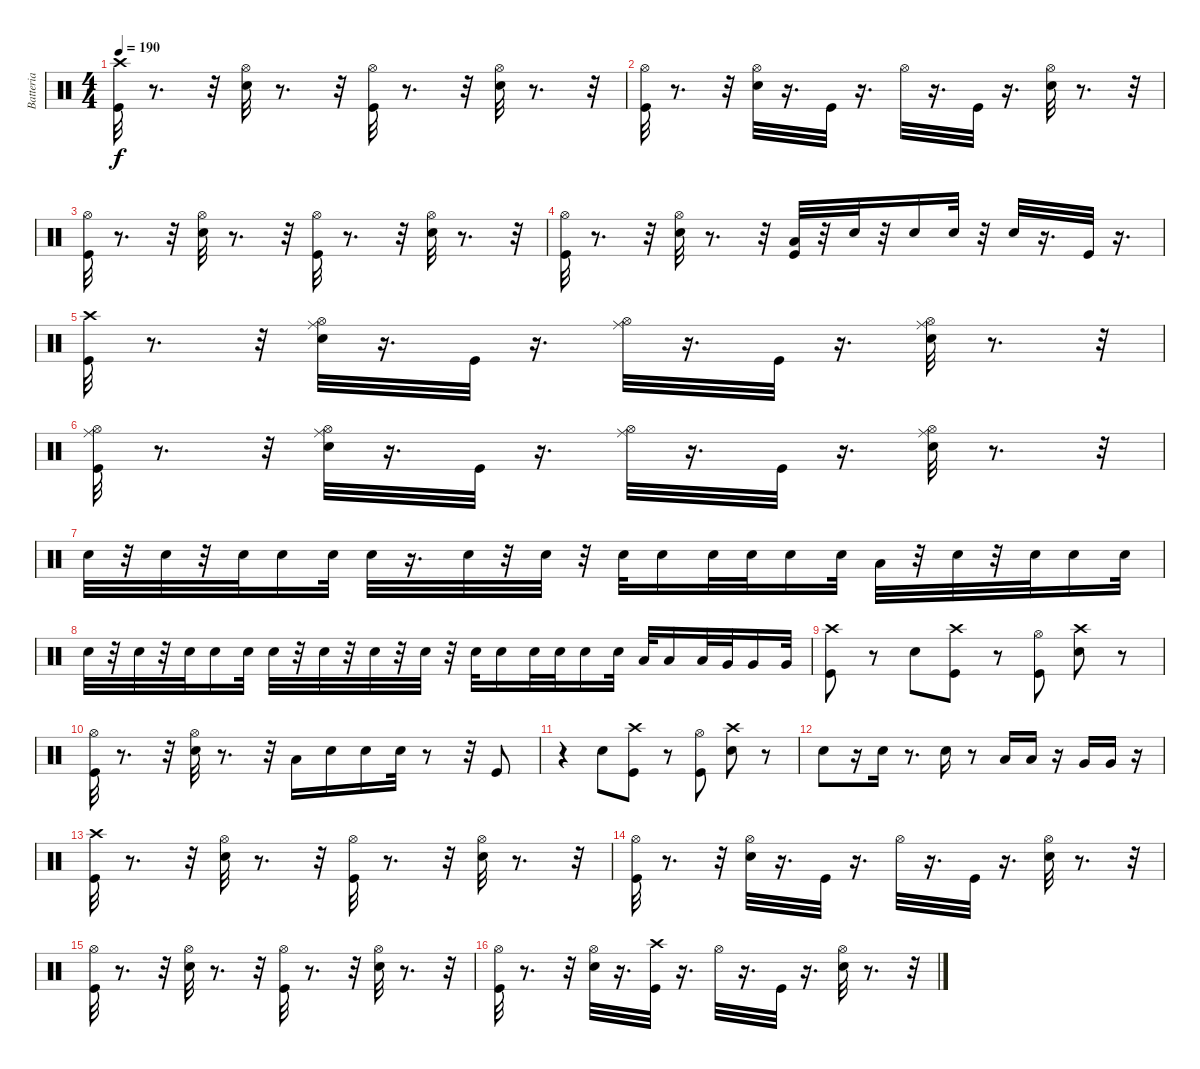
\track ("Batteria" "Batteria") {instrument percussion}
\staff {score}
\articulation defaults
\ts (4 4)
\tempo 190
\clef neutral
\ks c
("Kick (hit)" "Crash high (hit)").32{dy f} r.8{d} r.32 ("Hi-Hat (open)" "Snare (hit) 2").32 r.8{d} r.32 ("Hi-Hat (open)" "Kick (hit)").32 r.8{d} r.32 ("Snare (hit) 2" "Hi-Hat (open)").32 r.8{d} r.32 |
("Hi-Hat (open)" "Kick (hit)").32 r.8{d} r.32 ("Hi-Hat (open)" "Snare (hit) 2").32 r.16{d} "Kick (hit)".32 r.16{d} "Hi-Hat (open)".32 r.16{d} "Kick (hit)".32 r.16{d} ("Hi-Hat (open)" "Snare (hit) 2").32 r.8{d} r.32 |
("Kick (hit)" "Hi-Hat (open)").32 r.8{d} r.32 ("Hi-Hat (open)" "Snare (hit) 2").32 r.8{d} r.32 ("Hi-Hat (open)" "Kick (hit)").32 r.8{d} r.32 ("Hi-Hat (open)" "Snare (hit) 2").32 r.8{d} r.32 |
("Hi-Hat (open)" "Kick (hit)").32 r.8{d} r.32 ("Snare (hit) 2" "Hi-Hat (open)").32 r.8{d} r.32 ("Low Tom (hit)" "Kick (hit)").32 r.32 "Snare (hit) 2".32 r.32 "Snare (hit) 2".16 "Snare (hit) 2".32 r.32 "Snare (hit) 2".32 r.16{d} "Kick (hit)".32 r.16{d} |
("Crash high (hit)" "Kick (hit)").32 r.8{d} r.32 ("Hi-Hat (open)" "Snare (hit) 2" "Ride (middle)").32 r.16{d} "Kick (hit)".32 r.16{d} ("Hi-Hat (open)" "Ride (middle)").32 r.16{d} "Kick (hit)".32 r.16{d} ("Hi-Hat (open)" "Snare (hit) 2" "Ride (middle)").32 r.8{d} r.32 |
("Hi-Hat (open)" "Ride (middle)" "Kick (hit)").32 r.8{d} r.32 ("Hi-Hat (open)" "Snare (hit) 2" "Ride (middle)").32 r.16{d} "Kick (hit)".32 r.16{d} ("Hi-Hat (open)" "Ride (middle)").32 r.16{d} "Kick (hit)".32 r.16{d} ("Hi-Hat (open)" "Snare (hit) 2" "Ride (middle)").32 r.8{d} r.32 |
"Snare (hit) 2".32 r.32 "Snare (hit) 2".32 r.32 "Snare (hit) 2".32 "Snare (hit) 2".16 "Snare (hit) 2".32 "Snare (hit) 2".32 r.16{d} "Snare (hit) 2".32 r.32 "Snare (hit) 2".32 r.32 "Snare (hit) 2".32 "Snare (hit) 2".16 "Snare (hit) 2".32 "Snare (hit) 2".32 "Snare (hit) 2".16 "Snare (hit) 2".32 "Low Tom (hit)".32 r.32 "Snare (hit) 2".32 r.32 "Snare (hit) 2".32 "Snare (hit) 2".16 "Snare (hit) 2".32 |
"Snare (hit) 2".32 r.32 "Snare (hit) 2".32 r.32 "Snare (hit) 2".32 "Snare (hit) 2".16 "Snare (hit) 2".32 "Snare (hit) 2".32 r.32 "Snare (hit) 2".32 r.32 "Snare (hit) 2".32 r.32 "Snare (hit) 2".32 r.32 "Snare (hit) 2".32 "Snare (hit) 2".16 "Snare (hit) 2".32 "Snare (hit) 2".32 "Snare (hit) 2".16 "Snare (hit) 2".32 "Low Tom (hit)".32 "Low Tom (hit)".16 "Low Tom (hit)".32 "Very Low Tom (hit)".32 "Very Low Tom (hit)".16 "Very Low Tom (hit)".32 |
("Kick (hit)" "Crash high (hit)").8 r.8 "Snare (hit) 2".8 ("Kick (hit)" "Crash high (hit)").8 r.8 ("Kick (hit)" "Hi-Hat (open)").8 ("Crash high (hit)" "Snare (hit) 2").8 r.8 |
("Hi-Hat (open)" "Kick (hit)").32 r.8{d} r.32 ("Snare (hit) 2" "Hi-Hat (open)").32 r.8{d} r.32 "Low Tom (hit)".16 "Snare (hit) 2".16 "Snare (hit) 2".16 "Snare (hit) 2".32 r.8 r.32 "Kick (hit)".8 |
r.4 "Snare (hit) 2".8 ("Kick (hit)" "Crash high (hit)").8 r.8 ("Hi-Hat (open)" "Kick (hit)").8 ("Snare (hit) 2" "Crash high (hit)").8 r.8 |
"Snare (hit) 2".8 r.16 "Snare (hit) 2".16 r.8{d} "Snare (hit) 2".16 r.8 "Low Tom (hit)".16 "Low Tom (hit)".16 r.16 "Very Low Tom (hit)".16 "Very Low Tom (hit)".16 r.16 |
("Crash high (hit)" "Kick (hit)").32 r.8{d} r.32 ("Snare (hit) 2" "Hi-Hat (open)").32 r.8{d} r.32 ("Hi-Hat (open)" "Kick (hit)").32 r.8{d} r.32 ("Snare (hit) 2" "Hi-Hat (open)").32 r.8{d} r.32 |
("Kick (hit)" "Hi-Hat (open)").32 r.8{d} r.32 ("Hi-Hat (open)" "Snare (hit) 2").32 r.16{d} "Kick (hit)".32 r.16{d} "Hi-Hat (open)".32 r.16{d} "Kick (hit)".32 r.16{d} ("Hi-Hat (open)" "Snare (hit) 2").32 r.8{d} r.32 |
("Hi-Hat (open)" "Kick (hit)").32 r.8{d} r.32 ("Snare (hit) 2" "Hi-Hat (open)").32 r.8{d} r.32 ("Kick (hit)" "Hi-Hat (open)").32 r.8{d} r.32 ("Hi-Hat (open)" "Snare (hit) 2").32 r.8{d} r.32 |
("Hi-Hat (open)" "Kick (hit)").32 r.8{d} r.32 ("Hi-Hat (open)" "Snare (hit) 2").32 r.16{d} ("Crash high (hit)" "Kick (hit)").32 r.16{d} "Hi-Hat (open)".32 r.16{d} "Kick (hit)".32 r.16{d} ("Hi-Hat (open)" "Snare (hit) 2").32 r.8{d} r.32
